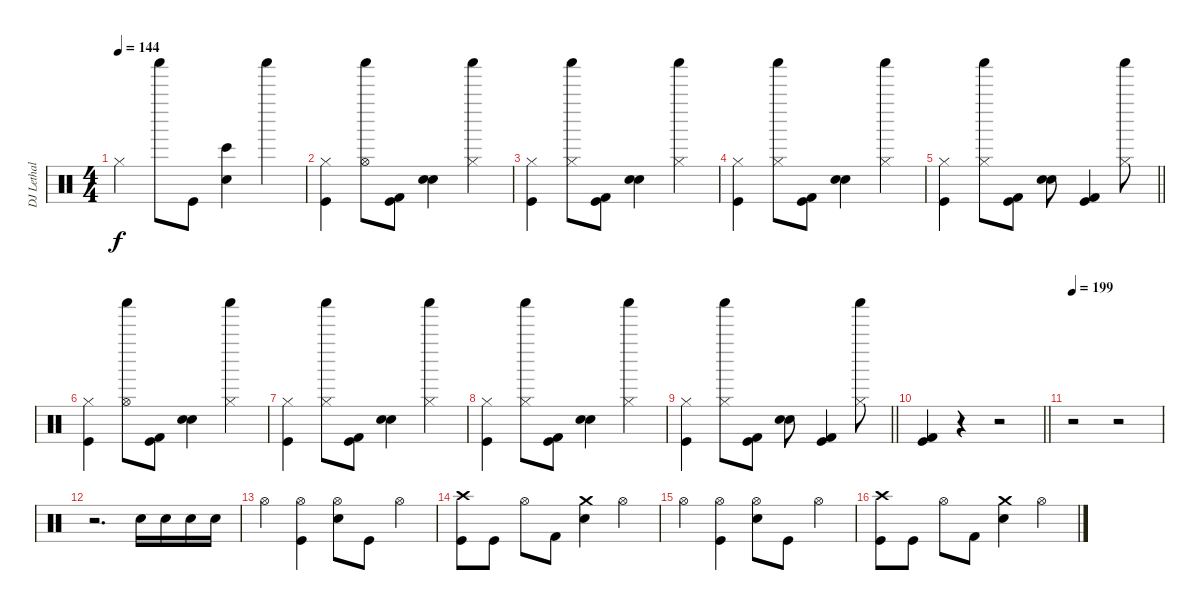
\track ("DJ Lethal + John" "DJ Lethal ") {instrument percussion}
\staff {score}
\articulation defaults
\ts (4 4)
\tempo 144
\clef neutral
\ks c "Hi-Hat (closed)".4{dy f} "Shaker (hit)".8 "Kick (hit)".8
("Electric Snare (hit)" "Bongo High (hit)").4 "Shaker (hit)".4 |
("Hi-Hat (closed)" "Kick (hit)").4 ("Hi-Hat (open)" "Shaker (hit)").8 ("Kick (hit) 2" "Kick (hit)").8 ("Hand Clap (hit)" "Electric Snare (hit)").4 ("Hi-Hat (closed)" "Shaker (hit)").4 |
("Hi-Hat (closed)" "Kick (hit)").4 ("Hi-Hat (closed)" "Shaker (hit)").8 ("Kick (hit) 2" "Kick (hit)").8 ("Hand Clap (hit)" "Electric Snare (hit)").4 ("Hi-Hat (closed)" "Shaker (hit)").4 |
("Hi-Hat (closed)" "Kick (hit)").4 ("Hi-Hat (closed)" "Shaker (hit)").8 ("Kick (hit) 2" "Kick (hit)").8 ("Hand Clap (hit)" "Electric Snare (hit)").4 ("Hi-Hat (closed)" "Shaker (hit)").4 |
\barLineRight lightlight
("Hi-Hat (closed)" "Kick (hit)").4 ("Hi-Hat (closed)" "Shaker (hit)").8 ("Kick (hit) 2" "Kick (hit)").8 ("Hand Clap (hit)" "Electric Snare (hit)").8 ("Kick (hit) 2" "Kick (hit)").4 ("Hi-Hat (closed)" "Shaker (hit)").8 |
("Hi-Hat (closed)" "Kick (hit)").4 ("Hi-Hat (open)" "Shaker (hit)").8 ("Kick (hit) 2" "Kick (hit)").8 ("Hand Clap (hit)" "Electric Snare (hit)").4 ("Hi-Hat (closed)" "Shaker (hit)").4 |
("Hi-Hat (closed)" "Kick (hit)").4 ("Hi-Hat (closed)" "Shaker (hit)").8 ("Kick (hit) 2" "Kick (hit)").8 ("Hand Clap (hit)" "Electric Snare (hit)").4 ("Hi-Hat (closed)" "Shaker (hit)").4 |
("Hi-Hat (closed)" "Kick (hit)").4 ("Hi-Hat (closed)" "Shaker (hit)").8 ("Kick (hit) 2" "Kick (hit)").8 ("Hand Clap (hit)" "Electric Snare (hit)").4 ("Hi-Hat (closed)" "Shaker (hit)").4 |
\barLineRight lightlight
("Hi-Hat (closed)" "Kick (hit)").4 ("Hi-Hat (closed)" "Shaker (hit)").8 ("Kick (hit) 2" "Kick (hit)").8 ("Hand Clap (hit)" "Electric Snare (hit)").8 ("Kick (hit) 2" "Kick (hit)").4 ("Hi-Hat (closed)" "Shaker (hit)").8 |
\barLineRight lightlight
("Kick (hit)" "Kick (hit) 2").4 r.4 r.2 |
\tempo 199
r.2 r.2 |
r.2{d} "Electric Snare (hit)".16 "Electric Snare (hit)".16 "Electric Snare (hit)".16 "Electric Snare (hit)".16 |
"Hi-Hat (open)".4 ("Hi-Hat (open)" "Kick (hit)").4 ("Hi-Hat (open)" "Electric Snare (hit)").8 "Kick (hit)".8 "Hi-Hat (open)".4 |
("Crash high (hit)" "Kick (hit)").8 "Kick (hit)".8 "Hi-Hat (open)".8 "Kick (hit) 2".8 ("Crash medium (hit)" "Electric Snare (hit)").4 "Hi-Hat (open)".4 |
"Hi-Hat (open)".4 ("Hi-Hat (open)" "Kick (hit)").4 ("Hi-Hat (open)" "Electric Snare (hit)").8 "Kick (hit)".8 "Hi-Hat (open)".4 |
("Crash high (hit)" "Kick (hit)").8 "Kick (hit)".8 "Hi-Hat (open)".8 "Kick (hit) 2".8 ("Crash medium (hit)" "Electric Snare (hit)").4 "Hi-Hat (open)".4
